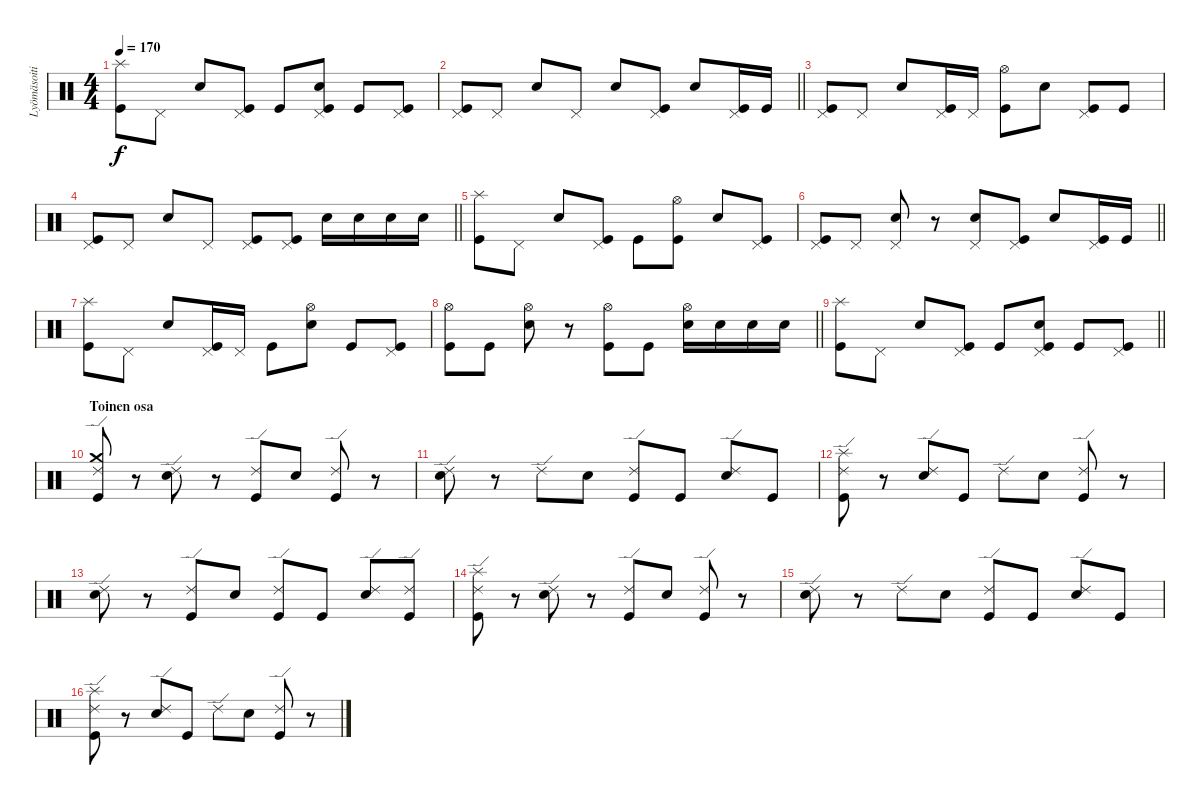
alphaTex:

\track ("Lyömäsoitin" "Lyömäsoiti") {instrument percussion}
\staff {score}
\articulation defaults
\ts (4 4)
\tempo 170
\clef neutral
\ks c
("Splash (hit)" "Kick (hit)").8{dy f} "Pedal Hi-Hat (hit)".8 "Snare (hit) 2".8 ("Pedal Hi-Hat (hit)" "Kick (hit)").8 "Kick (hit)".8 ("Snare (hit) 2" "Pedal Hi-Hat (hit)" "Kick (hit)").8 "Kick (hit)".8 ("Pedal Hi-Hat (hit)" "Kick (hit)").8 |
\barLineRight lightlight
("Pedal Hi-Hat (hit)" "Kick (hit)").8 "Pedal Hi-Hat (hit)".8 "Snare (hit) 2".8 "Pedal Hi-Hat (hit)".8 "Snare (hit) 2".8 ("Pedal Hi-Hat (hit)" "Kick (hit)").8 "Snare (hit) 2".8 ("Pedal Hi-Hat (hit)" "Kick (hit)").16 "Kick (hit)".16 |
("Pedal Hi-Hat (hit)" "Kick (hit)").8 "Pedal Hi-Hat (hit)".8 "Snare (hit) 2".8 ("Pedal Hi-Hat (hit)" "Kick (hit)").16 "Pedal Hi-Hat (hit)".16 ("Hi-Hat (open)" "Kick (hit)").8 "Snare (hit) 2".8 ("Pedal Hi-Hat (hit)" "Kick (hit)").8 "Kick (hit)".8 |
\barLineRight lightlight
("Pedal Hi-Hat (hit)" "Kick (hit)").8 "Pedal Hi-Hat (hit)".8 "Snare (hit) 2".8 "Pedal Hi-Hat (hit)".8 ("Pedal Hi-Hat (hit)" "Kick (hit)").8 ("Pedal Hi-Hat (hit)" "Kick (hit)").8 "Snare (hit) 2".16 "Snare (hit) 2".16 "Snare (hit) 2".16 "Snare (hit) 2".16 |
("Splash (hit)" "Kick (hit)").8 "Pedal Hi-Hat (hit)".8 "Snare (hit) 2".8 ("Pedal Hi-Hat (hit)" "Kick (hit)").8 "Kick (hit)".8 ("Hi-Hat (open)" "Kick (hit)").8 "Snare (hit) 2".8 ("Pedal Hi-Hat (hit)" "Kick (hit)").8 |
\barLineRight lightlight
("Pedal Hi-Hat (hit)" "Kick (hit)").8 "Pedal Hi-Hat (hit)".8 ("Snare (hit) 2" "Pedal Hi-Hat (hit)").8 r.8 ("Snare (hit) 2" "Pedal Hi-Hat (hit)").8 ("Pedal Hi-Hat (hit)" "Kick (hit)").8 "Snare (hit) 2".8 ("Pedal Hi-Hat (hit)" "Kick (hit)").16 "Kick (hit)".16 |
("Splash (hit)" "Kick (hit)").8 "Pedal Hi-Hat (hit)".8 "Snare (hit) 2".8 ("Pedal Hi-Hat (hit)" "Kick (hit)").16 "Pedal Hi-Hat (hit)".16 "Kick (hit)".8 ("Snare (hit) 2" "Hi-Hat (open)").8 "Kick (hit)".8 ("Pedal Hi-Hat (hit)" "Kick (hit)").8 |
\barLineRight lightlight
("Hi-Hat (open)" "Kick (hit)").8 "Kick (hit)".8 ("Hi-Hat (open)" "Snare (hit) 2").8 r.8 ("Hi-Hat (open)" "Kick (hit)").8 "Kick (hit)".8 ("Hi-Hat (open)" "Snare (hit) 2").16 "Snare (hit) 2".16 "Snare (hit) 2".16 "Snare (hit) 2".16 |
\barLineRight lightlight
("Splash (hit)" "Kick (hit)").8 "Pedal Hi-Hat (hit)".8 "Snare (hit) 2".8 ("Pedal Hi-Hat (hit)" "Kick (hit)").8 "Kick (hit)".8 ("Snare (hit) 2" "Pedal Hi-Hat (hit)" "Kick (hit)").8 "Kick (hit)".8 ("Pedal Hi-Hat (hit)" "Kick (hit)").8 |
\section ("" "Toinen osa")
("Crash medium (hit)" "Ride (edge) 2" "Kick (hit)").8 r.8 ("Ride (edge) 2" "Snare (hit) 2").8 r.8 ("Ride (edge) 2" "Kick (hit)").8 "Snare (hit) 2".8 ("Ride (edge) 2" "Kick (hit)").8 r.8 |
("Ride (edge) 2" "Snare (hit) 2").8 r.8 "Ride (edge) 2".8 "Snare (hit) 2".8 ("Ride (edge) 2" "Kick (hit)").8 "Kick (hit)".8 ("Ride (edge) 2" "Snare (hit) 2").8 "Kick (hit)".8 |
("Splash (hit)" "Ride (edge) 2" "Kick (hit)").8 r.8 ("Ride (edge) 2" "Snare (hit) 2").8 "Kick (hit)".8 "Ride (edge) 2".8 "Snare (hit) 2".8 ("Ride (edge) 2" "Kick (hit)").8 r.8 |
("Ride (edge) 2" "Snare (hit) 2").8 r.8 ("Ride (edge) 2" "Kick (hit)").8 "Snare (hit) 2".8 ("Ride (edge) 2" "Kick (hit)").8 "Kick (hit)".8 ("Ride (edge) 2" "Snare (hit) 2").8 ("Ride (edge) 2" "Kick (hit)").8 |
("Splash (hit)" "Ride (edge) 2" "Kick (hit)").8 r.8 ("Ride (edge) 2" "Snare (hit) 2").8 r.8 ("Ride (edge) 2" "Kick (hit)").8 "Snare (hit) 2".8 ("Ride (edge) 2" "Kick (hit)").8 r.8 |
("Ride (edge) 2" "Snare (hit) 2").8 r.8 "Ride (edge) 2".8 "Snare (hit) 2".8 ("Ride (edge) 2" "Kick (hit)").8 "Kick (hit)".8 ("Ride (edge) 2" "Snare (hit) 2").8 "Kick (hit)".8 |
("Splash (hit)" "Ride (edge) 2" "Kick (hit)").8 r.8 ("Ride (edge) 2" "Snare (hit) 2").8 "Kick (hit)".8 "Ride (edge) 2".8 "Snare (hit) 2".8 ("Ride (edge) 2" "Kick (hit)").8 r.8
